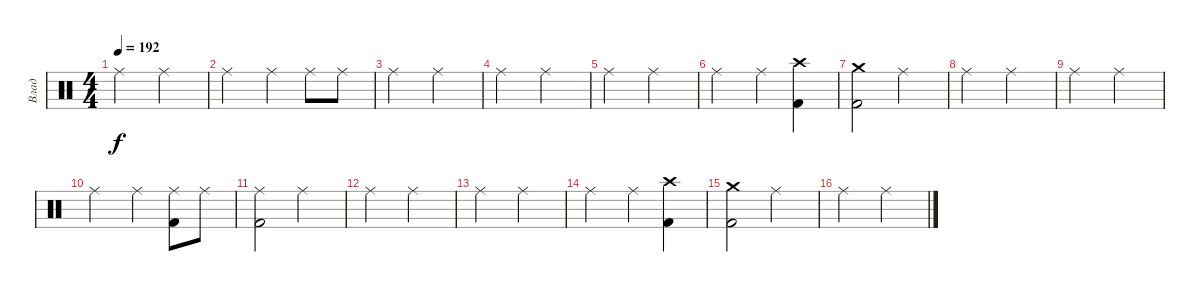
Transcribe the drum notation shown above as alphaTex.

\track ("Влад" "Влад") {instrument percussion}
\staff {score}
\articulation defaults
\ts (4 4)
\tempo 192
\clef neutral
\ks c "Ride (middle)".2{dy f} "Ride (middle)".2
|
"Ride (middle)".2 "Ride (middle)".4 "Ride (middle)".8 "Ride (middle)".8 |
"Ride (middle)".2 "Ride (middle)".2 |
"Ride (middle)".2 "Ride (middle)".2 |
"Ride (middle)".2 "Ride (middle)".2 |
"Ride (middle)".2 "Ride (middle)".4 ("Crash high (hit)" "Kick (hit) 2").4 |
("Crash medium (hit)" "Kick (hit) 2").2 "Ride (middle)".2 |
"Ride (middle)".2 "Ride (middle)".2 |
"Ride (middle)".2 "Ride (middle)".2 |
"Ride (middle)".2 "Ride (middle)".4 ("Ride (middle)" "Kick (hit) 2").8 "Ride (middle)".8 |
("Ride (middle)" "Kick (hit) 2").2 "Ride (middle)".2 |
"Ride (middle)".2 "Ride (middle)".2 |
"Ride (middle)".2 "Ride (middle)".2 |
"Ride (middle)".2 "Ride (middle)".4 ("Crash high (hit)" "Kick (hit) 2").4 |
("Crash medium (hit)" "Kick (hit) 2").2 "Ride (middle)".2 |
"Ride (middle)".2 "Ride (middle)".2
